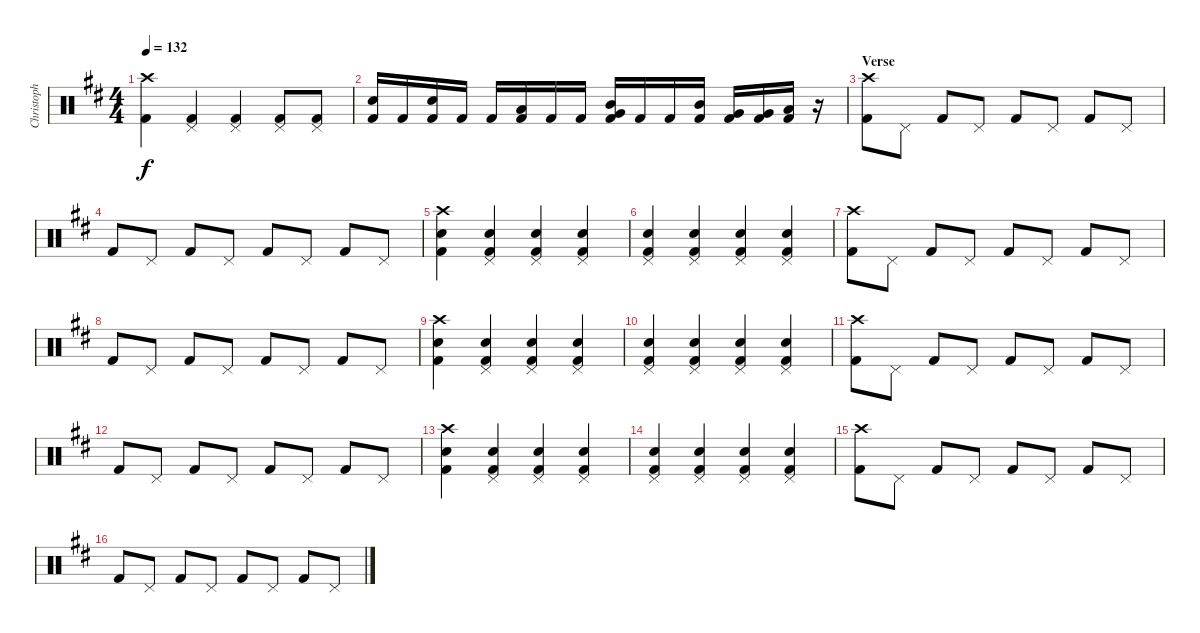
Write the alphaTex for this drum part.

\track ("Christoph Doom Schneider - Drums" "Christoph ") {instrument percussion}
\staff {score}
\articulation defaults
\ts (4 4)
\tempo 132
\clef neutral
\ks d
("Crash high (hit)" "Kick (hit) 2").4{dy f} ("Pedal Hi-Hat (hit)" "Kick (hit) 2").4 ("Pedal Hi-Hat (hit)" "Kick (hit) 2").4 ("Pedal Hi-Hat (hit)" "Kick (hit) 2").8 ("Pedal Hi-Hat (hit)" "Kick (hit) 2").8 |
("Snare (hit) 2" "Kick (hit) 2").16 "Kick (hit) 2".16 ("Snare (hit) 2" "Kick (hit) 2").16 "Kick (hit) 2".16 "Kick (hit) 2".16 ("Low Tom (hit)" "Kick (hit) 2").16 "Kick (hit) 2".16 "Kick (hit) 2".16 ("Mid Tom (hit)" "Very Low Tom (hit)" "Kick (hit) 2").16 "Kick (hit) 2".16 "Kick (hit) 2".16 ("Mid Tom (hit)" "Kick (hit) 2").16 ("Very Low Tom (hit)" "Kick (hit) 2").16 ("Very Low Tom (hit)" "Kick (hit) 2").16 ("Low Floor Tom (hit)" "Kick (hit) 2").16 r.16 |
\section ("" "Verse")
("Crash high (hit)" "Kick (hit) 2").8 "Pedal Hi-Hat (hit)".8 "Kick (hit) 2".8 "Pedal Hi-Hat (hit)".8 "Kick (hit) 2".8 "Pedal Hi-Hat (hit)".8 "Kick (hit) 2".8 "Pedal Hi-Hat (hit)".8 |
"Kick (hit) 2".8 "Pedal Hi-Hat (hit)".8 "Kick (hit) 2".8 "Pedal Hi-Hat (hit)".8 "Kick (hit) 2".8 "Pedal Hi-Hat (hit)".8 "Kick (hit) 2".8 "Pedal Hi-Hat (hit)".8 |
("Crash high (hit)" "Snare (hit) 2" "Kick (hit) 2").4 ("Pedal Hi-Hat (hit)" "Snare (hit) 2" "Kick (hit) 2").4 ("Pedal Hi-Hat (hit)" "Snare (hit) 2" "Kick (hit) 2").4 ("Pedal Hi-Hat (hit)" "Snare (hit) 2" "Kick (hit) 2").4 |
("Pedal Hi-Hat (hit)" "Snare (hit) 2" "Kick (hit) 2").4 ("Pedal Hi-Hat (hit)" "Snare (hit) 2" "Kick (hit) 2").4 ("Pedal Hi-Hat (hit)" "Snare (hit) 2" "Kick (hit) 2").4 ("Pedal Hi-Hat (hit)" "Snare (hit) 2" "Kick (hit) 2").4 |
("Crash high (hit)" "Kick (hit) 2").8 "Pedal Hi-Hat (hit)".8 "Kick (hit) 2".8 "Pedal Hi-Hat (hit)".8 "Kick (hit) 2".8 "Pedal Hi-Hat (hit)".8 "Kick (hit) 2".8 "Pedal Hi-Hat (hit)".8 |
"Kick (hit) 2".8 "Pedal Hi-Hat (hit)".8 "Kick (hit) 2".8 "Pedal Hi-Hat (hit)".8 "Kick (hit) 2".8 "Pedal Hi-Hat (hit)".8 "Kick (hit) 2".8 "Pedal Hi-Hat (hit)".8 |
("Crash high (hit)" "Snare (hit) 2" "Kick (hit) 2").4 ("Pedal Hi-Hat (hit)" "Snare (hit) 2" "Kick (hit) 2").4 ("Pedal Hi-Hat (hit)" "Snare (hit) 2" "Kick (hit) 2").4 ("Pedal Hi-Hat (hit)" "Snare (hit) 2" "Kick (hit) 2").4 |
("Pedal Hi-Hat (hit)" "Snare (hit) 2" "Kick (hit) 2").4 ("Pedal Hi-Hat (hit)" "Snare (hit) 2" "Kick (hit) 2").4 ("Pedal Hi-Hat (hit)" "Snare (hit) 2" "Kick (hit) 2").4 ("Pedal Hi-Hat (hit)" "Snare (hit) 2" "Kick (hit) 2").4 |
("Crash high (hit)" "Kick (hit) 2").8 "Pedal Hi-Hat (hit)".8 "Kick (hit) 2".8 "Pedal Hi-Hat (hit)".8 "Kick (hit) 2".8 "Pedal Hi-Hat (hit)".8 "Kick (hit) 2".8 "Pedal Hi-Hat (hit)".8 |
"Kick (hit) 2".8 "Pedal Hi-Hat (hit)".8 "Kick (hit) 2".8 "Pedal Hi-Hat (hit)".8 "Kick (hit) 2".8 "Pedal Hi-Hat (hit)".8 "Kick (hit) 2".8 "Pedal Hi-Hat (hit)".8 |
("Crash high (hit)" "Snare (hit) 2" "Kick (hit) 2").4 ("Pedal Hi-Hat (hit)" "Snare (hit) 2" "Kick (hit) 2").4 ("Pedal Hi-Hat (hit)" "Snare (hit) 2" "Kick (hit) 2").4 ("Pedal Hi-Hat (hit)" "Snare (hit) 2" "Kick (hit) 2").4 |
("Pedal Hi-Hat (hit)" "Snare (hit) 2" "Kick (hit) 2").4 ("Pedal Hi-Hat (hit)" "Snare (hit) 2" "Kick (hit) 2").4 ("Pedal Hi-Hat (hit)" "Snare (hit) 2" "Kick (hit) 2").4 ("Pedal Hi-Hat (hit)" "Snare (hit) 2" "Kick (hit) 2").4 |
("Crash high (hit)" "Kick (hit) 2").8 "Pedal Hi-Hat (hit)".8 "Kick (hit) 2".8 "Pedal Hi-Hat (hit)".8 "Kick (hit) 2".8 "Pedal Hi-Hat (hit)".8 "Kick (hit) 2".8 "Pedal Hi-Hat (hit)".8 |
"Kick (hit) 2".8 "Pedal Hi-Hat (hit)".8 "Kick (hit) 2".8 "Pedal Hi-Hat (hit)".8 "Kick (hit) 2".8 "Pedal Hi-Hat (hit)".8 "Kick (hit) 2".8 "Pedal Hi-Hat (hit)".8
